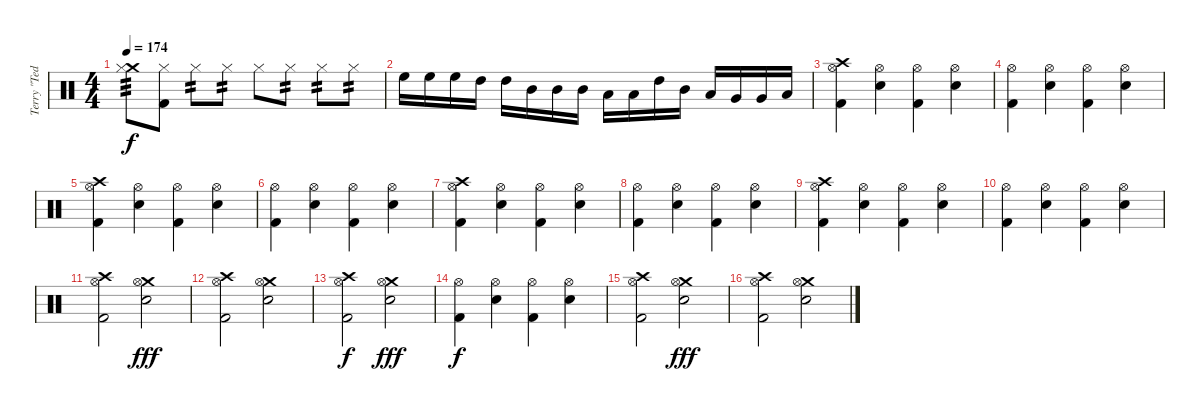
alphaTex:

\track ("Terry \"Ted\" Bozzio" "Terry \"Ted") {instrument percussion}
\staff {score}
\articulation defaults
\ts (4 4)
\tempo 174
\clef neutral
\ks c
("Crash medium (hit)" "Hi-Hat (closed)").8{tp 3 dy f} ("Hi-Hat (closed)" "Kick (hit) 2").8 "Hi-Hat (closed)".8{tp 2} "Hi-Hat (closed)".8{tp 2} "Hi-Hat (closed)".8 "Hi-Hat (closed)".8{tp 2} "Hi-Hat (closed)".8{tp 2} "Hi-Hat (closed)".8{tp 2} |
"High Floor Tom (hit)".16 "High Floor Tom (hit)".16 "High Floor Tom (hit)".16 "High Tom (hit)".16 "High Tom (hit)".16 "Mid Tom (hit)".16 "Mid Tom (hit)".16 "Mid Tom (hit)".16 "Low Tom (hit)".16 "Low Tom (hit)".16 "High Tom (hit)".16 "Mid Tom (hit)".16 "Low Tom (hit)".16 "Very Low Tom (hit)".16 "Very Low Tom (hit)".16 "Low Floor Tom (hit)".16 |
("Crash high (hit)" "Hi-Hat (open)" "Kick (hit) 2").4 ("Hi-Hat (open)" "Electric Snare (hit)").4 ("Hi-Hat (open)" "Kick (hit) 2").4 ("Hi-Hat (open)" "Electric Snare (hit)").4 |
("Hi-Hat (open)" "Kick (hit) 2").4 ("Hi-Hat (open)" "Electric Snare (hit)").4 ("Hi-Hat (open)" "Kick (hit) 2").4 ("Hi-Hat (open)" "Electric Snare (hit)").4 |
("Crash high (hit)" "Hi-Hat (open)" "Kick (hit) 2").4 ("Hi-Hat (open)" "Electric Snare (hit)").4 ("Hi-Hat (open)" "Kick (hit) 2").4 ("Hi-Hat (open)" "Electric Snare (hit)").4 |
("Hi-Hat (open)" "Kick (hit) 2").4 ("Hi-Hat (open)" "Electric Snare (hit)").4 ("Hi-Hat (open)" "Kick (hit) 2").4 ("Hi-Hat (open)" "Electric Snare (hit)").4 |
("Crash high (hit)" "Hi-Hat (open)" "Kick (hit) 2").4 ("Hi-Hat (open)" "Electric Snare (hit)").4 ("Hi-Hat (open)" "Kick (hit) 2").4 ("Hi-Hat (open)" "Electric Snare (hit)").4 |
("Hi-Hat (open)" "Kick (hit) 2").4 ("Hi-Hat (open)" "Electric Snare (hit)").4 ("Hi-Hat (open)" "Kick (hit) 2").4 ("Hi-Hat (open)" "Electric Snare (hit)").4 |
("Crash high (hit)" "Hi-Hat (open)" "Kick (hit) 2").4 ("Hi-Hat (open)" "Electric Snare (hit)").4 ("Hi-Hat (open)" "Kick (hit) 2").4 ("Hi-Hat (open)" "Electric Snare (hit)").4 |
("Hi-Hat (open)" "Kick (hit) 2").4 ("Hi-Hat (open)" "Electric Snare (hit)").4 ("Hi-Hat (open)" "Kick (hit) 2").4 ("Hi-Hat (open)" "Electric Snare (hit)").4 |
("Crash high (hit)" "Hi-Hat (open)" "Kick (hit) 2").2 ("Crash medium (hit)" "Hi-Hat (open)" "Electric Snare (hit)").2{dy fff} |
("Crash high (hit)" "Hi-Hat (open)" "Kick (hit) 2").2 ("Crash medium (hit)" "Hi-Hat (open)" "Electric Snare (hit)").2 |
("Crash high (hit)" "Hi-Hat (open)" "Kick (hit) 2").2{dy f} ("Crash medium (hit)" "Hi-Hat (open)" "Electric Snare (hit)").2{dy fff} |
("Hi-Hat (open)" "Kick (hit) 2").4{dy f} ("Hi-Hat (open)" "Electric Snare (hit)").4 ("Hi-Hat (open)" "Kick (hit) 2").4 ("Hi-Hat (open)" "Electric Snare (hit)").4 |
("Crash high (hit)" "Hi-Hat (open)" "Kick (hit) 2").2 ("Crash medium (hit)" "Hi-Hat (open)" "Electric Snare (hit)").2{dy fff} |
("Crash high (hit)" "Hi-Hat (open)" "Kick (hit) 2").2 ("Crash medium (hit)" "Hi-Hat (open)" "Electric Snare (hit)").2
